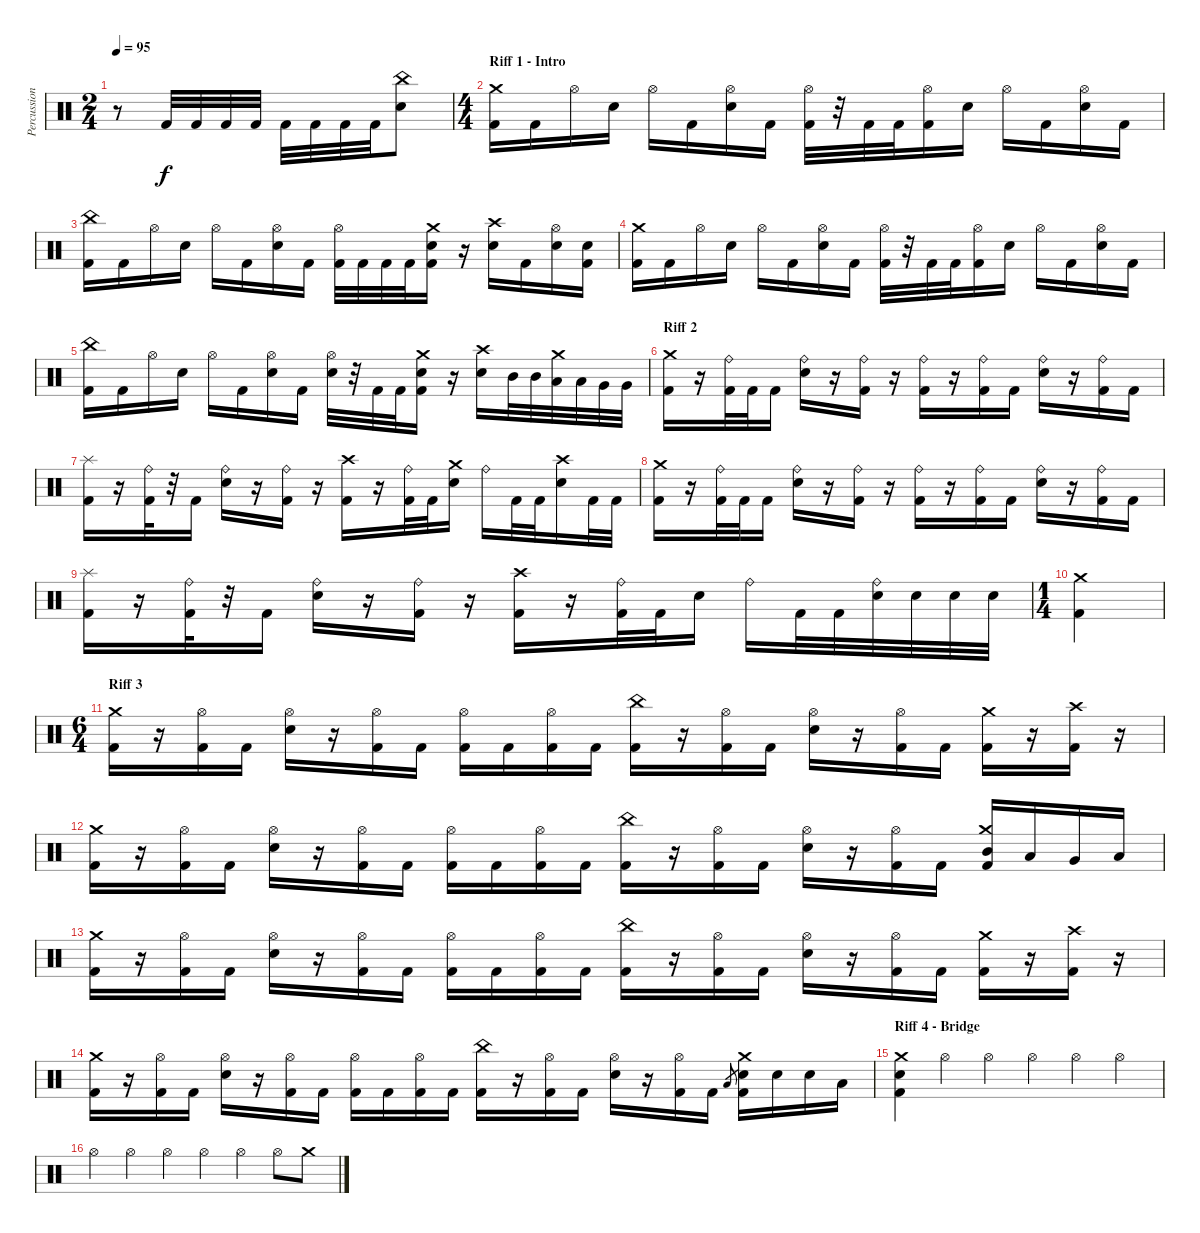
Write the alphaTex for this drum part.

\track ("Percussion" "Percussion") {instrument percussion}
\staff {score}
\articulation defaults
\ts (2 4)
\tempo 95
\clef neutral
\ks c
r.8{dy f} "Kick (hit) 2".32 "Kick (hit) 2".32 "Kick (hit) 2".32 "Kick (hit) 2".32 "Kick (hit) 2".32 "Kick (hit) 2".32 "Kick (hit) 2".32 "Kick (hit) 2".32 ("China (hit)" "Electric Snare (hit)").8 |
\ts (4 4)
\section ("" "Riff 1 - Intro")
("Crash medium (hit)" "Kick (hit) 2").16 "Kick (hit) 2".16 "Hi-Hat (open)".16 "Electric Snare (hit)".16 "Hi-Hat (open)".16 "Kick (hit) 2".16 ("Hi-Hat (open)" "Electric Snare (hit)").16 "Kick (hit) 2".16 ("Hi-Hat (open)" "Kick (hit) 2").32 r.32 "Kick (hit) 2".32 "Kick (hit) 2".32 ("Hi-Hat (open)" "Kick (hit) 2").16 "Electric Snare (hit)".16 "Hi-Hat (open)".16 "Kick (hit) 2".16 ("Hi-Hat (open)" "Electric Snare (hit)").16 "Kick (hit) 2".16 |
("China (hit)" "Kick (hit) 2").16 "Kick (hit) 2".16 "Hi-Hat (open)".16 "Electric Snare (hit)".16 "Hi-Hat (open)".16 "Kick (hit) 2".16 ("Hi-Hat (open)" "Electric Snare (hit)").16 "Kick (hit) 2".16 ("Hi-Hat (open)" "Kick (hit) 2").32 "Kick (hit) 2".32 "Kick (hit) 2".32 "Kick (hit) 2".32 ("Crash medium (hit)" "Electric Snare (hit)" "Kick (hit) 2").16 r.16 ("Crash high (hit)" "Electric Snare (hit)").16 "Kick (hit) 2".16 ("Hi-Hat (open)" "Electric Snare (hit)").16 ("Electric Snare (hit)" "Kick (hit) 2").16 |
("Crash medium (hit)" "Kick (hit) 2").16 "Kick (hit) 2".16 "Hi-Hat (open)".16 "Electric Snare (hit)".16 "Hi-Hat (open)".16 "Kick (hit) 2".16 ("Hi-Hat (open)" "Electric Snare (hit)").16 "Kick (hit) 2".16 ("Hi-Hat (open)" "Kick (hit) 2").32 r.32 "Kick (hit) 2".32 "Kick (hit) 2".32 ("Hi-Hat (open)" "Kick (hit) 2").16 "Electric Snare (hit)".16 "Hi-Hat (open)".16 "Kick (hit) 2".16 ("Hi-Hat (open)" "Electric Snare (hit)").16 "Kick (hit) 2".16 |
("China (hit)" "Kick (hit) 2").16 "Kick (hit) 2".16 "Hi-Hat (open)".16 "Electric Snare (hit)".16 "Hi-Hat (open)".16 "Kick (hit) 2".16 ("Hi-Hat (open)" "Electric Snare (hit)").16 "Kick (hit) 2".16 ("Hi-Hat (open)" "Electric Snare (hit)").32 r.32 "Kick (hit) 2".32 "Kick (hit) 2".32 ("Crash medium (hit)" "Electric Snare (hit)" "Kick (hit) 2").16 r.16 ("Crash high (hit)" "Electric Snare (hit)").16 "Mid Tom (hit)".32 "Mid Tom (hit)".32 ("Crash medium (hit)" "Low Tom (hit)").32 "Low Tom (hit)".32 "Very Low Tom (hit)".32 "Very Low Tom (hit)".32 |
\section ("" "Riff 2")
("Crash medium (hit)" "Kick (hit) 2").16 r.16 ("Ride (bell)" "Kick (hit) 2").32 "Kick (hit) 2".32 "Kick (hit) 2".16 ("Ride (bell)" "Electric Snare (hit)").16 r.16 ("Ride (bell)" "Kick (hit) 2").16 r.16 ("Ride (bell)" "Kick (hit) 2").16 r.16 ("Ride (bell)" "Kick (hit) 2").16 "Kick (hit) 2".16 ("Ride (bell)" "Electric Snare (hit)").16 r.16 ("Ride (bell)" "Kick (hit) 2").16 "Kick (hit) 2".16 |
("Splash (hit)" "Kick (hit) 2").16 r.16 ("Ride (bell)" "Kick (hit) 2").32 r.32 "Kick (hit) 2".16 ("Ride (bell)" "Electric Snare (hit)").16 r.16 ("Ride (bell)" "Kick (hit) 2").16 r.16 ("Crash high (hit)" "Kick (hit) 2").16 r.16 ("Ride (bell)" "Kick (hit) 2").32 "Kick (hit) 2".32 ("Crash medium (hit)" "Electric Snare (hit)").16 "Ride (bell)".16 "Kick (hit) 2".32 "Kick (hit) 2".32 ("Crash high (hit)" "Electric Snare (hit)").16 "Kick (hit) 2".32 "Kick (hit) 2".32 |
("Crash medium (hit)" "Kick (hit) 2").16 r.16 ("Ride (bell)" "Kick (hit) 2").32 "Kick (hit) 2".32 "Kick (hit) 2".16 ("Ride (bell)" "Electric Snare (hit)").16 r.16 ("Ride (bell)" "Kick (hit) 2").16 r.16 ("Ride (bell)" "Kick (hit) 2").16 r.16 ("Ride (bell)" "Kick (hit) 2").16 "Kick (hit) 2".16 ("Ride (bell)" "Electric Snare (hit)").16 r.16 ("Ride (bell)" "Kick (hit) 2").16 "Kick (hit) 2".16 |
("Splash (hit)" "Kick (hit) 2").16 r.16 ("Ride (bell)" "Kick (hit) 2").32 r.32 "Kick (hit) 2".16 ("Ride (bell)" "Electric Snare (hit)").16 r.16 ("Ride (bell)" "Kick (hit) 2").16 r.16 ("Crash high (hit)" "Kick (hit) 2").16 r.16 ("Ride (bell)" "Kick (hit) 2").32 "Kick (hit) 2".32 "Electric Snare (hit)".16 "Ride (bell)".16 "Kick (hit) 2".32 "Kick (hit) 2".32 ("Ride (bell)" "Electric Snare (hit)").32 "Electric Snare (hit)".32 "Electric Snare (hit)".32 "Electric Snare (hit)".32 |
\ts (1 4)
("Crash medium (hit)" "Kick (hit) 2").4 |
\ts (6 4)
\section ("" "Riff 3")
("Crash medium (hit)" "Kick (hit) 2").16 r.16 ("Hi-Hat (open)" "Kick (hit) 2").16 "Kick (hit) 2".16 ("Hi-Hat (open)" "Electric Snare (hit)").16 r.16 ("Hi-Hat (open)" "Kick (hit) 2").16 "Kick (hit) 2".16 ("Hi-Hat (open)" "Kick (hit) 2").16 "Kick (hit) 2".16 ("Hi-Hat (open)" "Kick (hit) 2").16 "Kick (hit) 2".16 ("China (hit)" "Kick (hit) 2").16 r.16 ("Hi-Hat (open)" "Kick (hit) 2").16 "Kick (hit) 2".16 ("Hi-Hat (open)" "Electric Snare (hit)").16 r.16 ("Hi-Hat (open)" "Kick (hit) 2").16 "Kick (hit) 2".16 ("Crash medium (hit)" "Kick (hit) 2").16 r.16 ("Crash high (hit)" "Kick (hit) 2").16 r.16 |
("Crash medium (hit)" "Kick (hit) 2").16 r.16 ("Hi-Hat (open)" "Kick (hit) 2").16 "Kick (hit) 2".16 ("Hi-Hat (open)" "Electric Snare (hit)").16 r.16 ("Hi-Hat (open)" "Kick (hit) 2").16 "Kick (hit) 2".16 ("Hi-Hat (open)" "Kick (hit) 2").16 "Kick (hit) 2".16 ("Hi-Hat (open)" "Kick (hit) 2").16 "Kick (hit) 2".16 ("China (hit)" "Kick (hit) 2").16 r.16 ("Hi-Hat (open)" "Kick (hit) 2").16 "Kick (hit) 2".16 ("Hi-Hat (open)" "Electric Snare (hit)").16 r.16 ("Hi-Hat (open)" "Kick (hit) 2").16 "Kick (hit) 2".16 ("Crash medium (hit)" "Mid Tom (hit)" "Kick (hit) 2").16 "Low Tom (hit)".16 "Very Low Tom (hit)".16 "Low Floor Tom (hit)".16 |
("Crash medium (hit)" "Kick (hit) 2").16 r.16 ("Hi-Hat (open)" "Kick (hit) 2").16 "Kick (hit) 2".16 ("Hi-Hat (open)" "Electric Snare (hit)").16 r.16 ("Hi-Hat (open)" "Kick (hit) 2").16 "Kick (hit) 2".16 ("Hi-Hat (open)" "Kick (hit) 2").16 "Kick (hit) 2".16 ("Hi-Hat (open)" "Kick (hit) 2").16 "Kick (hit) 2".16 ("China (hit)" "Kick (hit) 2").16 r.16 ("Hi-Hat (open)" "Kick (hit) 2").16 "Kick (hit) 2".16 ("Hi-Hat (open)" "Electric Snare (hit)").16 r.16 ("Hi-Hat (open)" "Kick (hit) 2").16 "Kick (hit) 2".16 ("Crash medium (hit)" "Kick (hit) 2").16 r.16 ("Crash high (hit)" "Kick (hit) 2").16 r.16 |
("Crash medium (hit)" "Kick (hit) 2").16 r.16 ("Hi-Hat (open)" "Kick (hit) 2").16 "Kick (hit) 2".16 ("Hi-Hat (open)" "Electric Snare (hit)").16 r.16 ("Hi-Hat (open)" "Kick (hit) 2").16 "Kick (hit) 2".16 ("Hi-Hat (open)" "Kick (hit) 2").16 "Kick (hit) 2".16 ("Hi-Hat (open)" "Kick (hit) 2").16 "Kick (hit) 2".16 ("China (hit)" "Kick (hit) 2").16 r.16 ("Hi-Hat (open)" "Kick (hit) 2").16 "Kick (hit) 2".16 ("Hi-Hat (open)" "Electric Snare (hit)").16 r.16 ("Hi-Hat (open)" "Kick (hit) 2").16 "Kick (hit) 2".16 "Low Tom (hit)".8{gr} ("Crash medium (hit)" "Electric Snare (hit)" "Kick (hit) 2").16 "Electric Snare (hit)".16 "Electric Snare (hit)".16 "Low Floor Tom (hit)".16 |
\section ("" "Riff 4 - Bridge")
("Crash medium (hit)" "Electric Snare (hit)" "Kick (hit) 2").4 "Hi-Hat (open)".4 "Hi-Hat (open)".4 "Hi-Hat (open)".4 "Hi-Hat (open)".4 "Hi-Hat (open)".4 |
"Hi-Hat (open)".4 "Hi-Hat (open)".4 "Hi-Hat (open)".4 "Hi-Hat (open)".4 "Hi-Hat (open)".4 "Hi-Hat (open)".8 "Crash medium (hit)".8
